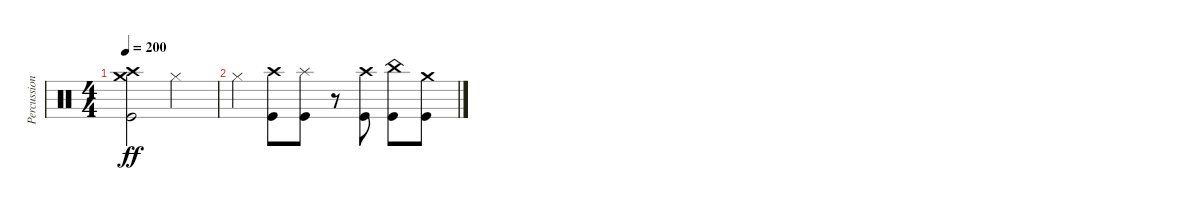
\track ("Percussion" "Percussion") {instrument percussion}
\staff {score}
\articulation defaults
\ts (4 4)
\tempo 200
\clef neutral
\ks c
("Crash high (hit)" "Crash medium (hit)" "Kick (hit)").2{dy ff} "Hi-Hat (closed)".2 |
"Hi-Hat (closed)".4 ("Kick (hit)" "Crash high (hit)").8 ("Kick (hit)" "Splash (hit)").8 r.8 ("Crash high (hit)" "Kick (hit)").8 ("China (hit)" "Kick (hit)").8 ("Crash medium (hit)" "Kick (hit)").8
